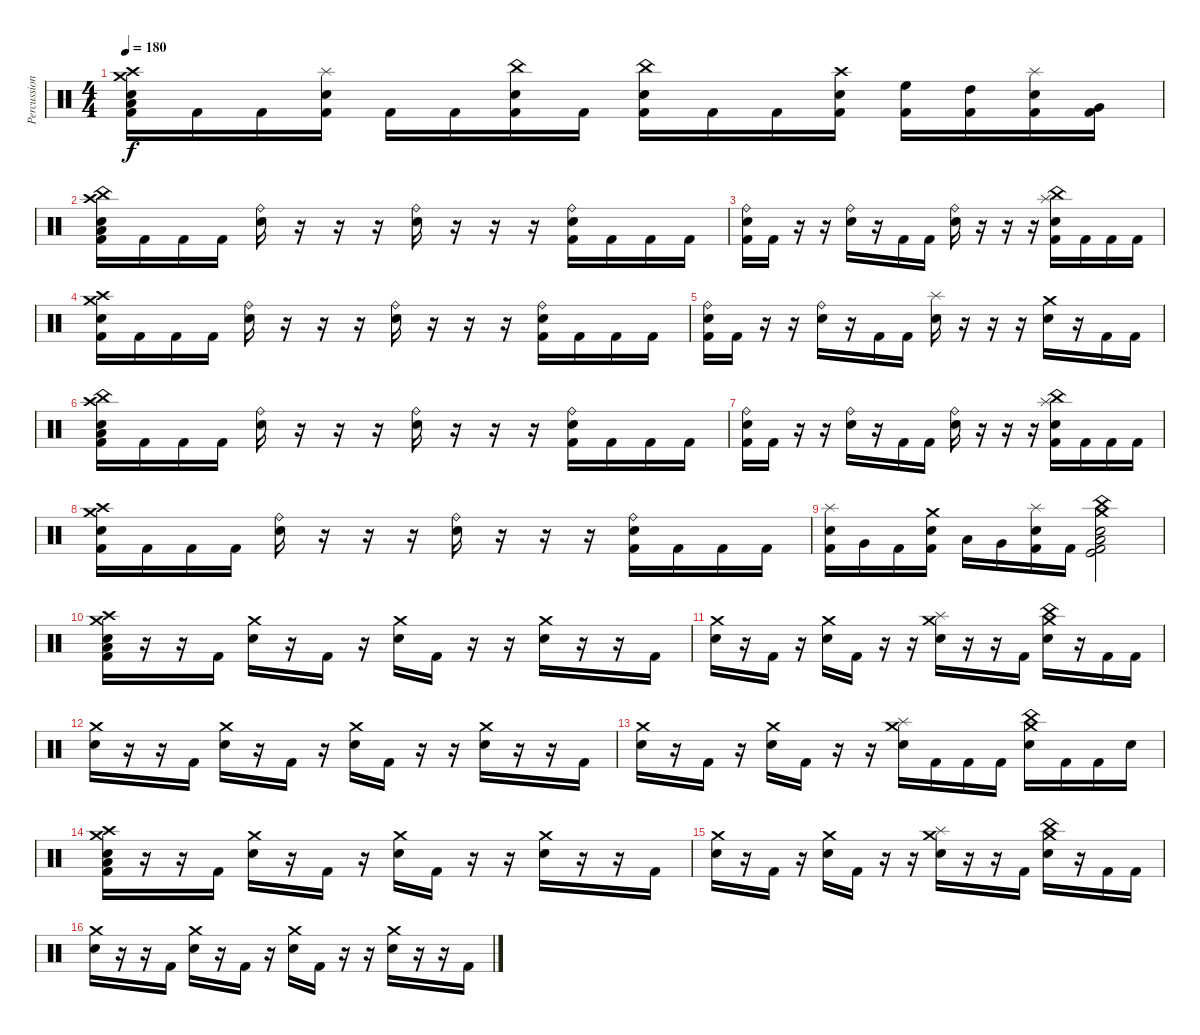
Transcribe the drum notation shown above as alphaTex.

\track ("Percussion" "Percussion") {instrument percussion}
\staff {score}
\articulation defaults
\ts (4 4)
\tempo 180
\clef neutral
\ks c
("Crash medium (hit)" "Crash high (hit)" "Electric Snare (hit)" "Low Floor Tom (hit)" "Kick (hit) 2").16{dy f} "Kick (hit) 2".16 "Kick (hit) 2".16 ("Splash (hit)" "Electric Snare (hit)" "Kick (hit) 2").16 "Kick (hit) 2".16 "Kick (hit) 2".16 ("China (hit)" "Electric Snare (hit)" "Kick (hit) 2").16 "Kick (hit) 2".16 ("China (hit)" "Electric Snare (hit)" "Kick (hit) 2").16 "Kick (hit) 2".16 "Kick (hit) 2".16 ("Crash high (hit)" "Electric Snare (hit)" "Kick (hit) 2").16 ("High Floor Tom (hit)" "Kick (hit) 2").16 ("High Tom (hit)" "Kick (hit) 2").16 ("Splash (hit)" "Electric Snare (hit)" "Kick (hit) 2").16 ("Very Low Tom (hit)" "Kick (hit) 2").16 |
("Crash high (hit)" "China (hit)" "Electric Snare (hit)" "Low Floor Tom (hit)" "Kick (hit) 2").16 "Kick (hit) 2".16 "Kick (hit) 2".16 "Kick (hit) 2".16 ("Ride (bell)" "Electric Snare (hit)").16 r.16 r.16 r.16 ("Ride (bell)" "Electric Snare (hit)").16 r.16 r.16 r.16 ("Ride (bell)" "Electric Snare (hit)" "Kick (hit) 2").16 "Kick (hit) 2".16 "Kick (hit) 2".16 "Kick (hit) 2".16 |
("Ride (bell)" "Electric Snare (hit)" "Kick (hit) 2").16 "Kick (hit) 2".16 r.16 r.16 ("Ride (bell)" "Electric Snare (hit)").16 r.16 "Kick (hit) 2".16 "Kick (hit) 2".16 ("Ride (bell)" "Electric Snare (hit)").16 r.16 r.16 r.16 ("Splash (hit)" "China (hit)" "Electric Snare (hit)" "Kick (hit) 2").16 "Kick (hit) 2".16 "Kick (hit) 2".16 "Kick (hit) 2".16 |
("Crash high (hit)" "Crash medium (hit)" "Electric Snare (hit)" "Kick (hit) 2").16 "Kick (hit) 2".16 "Kick (hit) 2".16 "Kick (hit) 2".16 ("Ride (bell)" "Electric Snare (hit)").16 r.16 r.16 r.16 ("Ride (bell)" "Electric Snare (hit)").16 r.16 r.16 r.16 ("Ride (bell)" "Electric Snare (hit)" "Kick (hit) 2").16 "Kick (hit) 2".16 "Kick (hit) 2".16 "Kick (hit) 2".16 |
("Ride (bell)" "Electric Snare (hit)" "Kick (hit) 2").16 "Kick (hit) 2".16 r.16 r.16 ("Ride (bell)" "Electric Snare (hit)").16 r.16 "Kick (hit) 2".16 "Kick (hit) 2".16 ("Splash (hit)" "Electric Snare (hit)").16 r.16 r.16 r.16 ("Crash medium (hit)" "Electric Snare (hit)").16 r.16 "Kick (hit) 2".16 "Kick (hit) 2".16 |
("Crash high (hit)" "China (hit)" "Electric Snare (hit)" "Low Floor Tom (hit)" "Kick (hit) 2").16 "Kick (hit) 2".16 "Kick (hit) 2".16 "Kick (hit) 2".16 ("Ride (bell)" "Electric Snare (hit)").16 r.16 r.16 r.16 ("Ride (bell)" "Electric Snare (hit)").16 r.16 r.16 r.16 ("Ride (bell)" "Electric Snare (hit)" "Kick (hit) 2").16 "Kick (hit) 2".16 "Kick (hit) 2".16 "Kick (hit) 2".16 |
("Ride (bell)" "Electric Snare (hit)" "Kick (hit) 2").16 "Kick (hit) 2".16 r.16 r.16 ("Ride (bell)" "Electric Snare (hit)").16 r.16 "Kick (hit) 2".16 "Kick (hit) 2".16 ("Ride (bell)" "Electric Snare (hit)").16 r.16 r.16 r.16 ("Splash (hit)" "China (hit)" "Electric Snare (hit)" "Kick (hit) 2").16 "Kick (hit) 2".16 "Kick (hit) 2".16 "Kick (hit) 2".16 |
("Crash high (hit)" "Crash medium (hit)" "Electric Snare (hit)" "Kick (hit) 2").16 "Kick (hit) 2".16 "Kick (hit) 2".16 "Kick (hit) 2".16 ("Ride (bell)" "Electric Snare (hit)").16 r.16 r.16 r.16 ("Ride (bell)" "Electric Snare (hit)").16 r.16 r.16 r.16 ("Ride (bell)" "Electric Snare (hit)" "Kick (hit) 2").16 "Kick (hit) 2".16 "Kick (hit) 2".16 "Kick (hit) 2".16 |
("Splash (hit)" "Electric Snare (hit)" "Kick (hit) 2").16 "Very Low Tom (hit)".16 "Kick (hit) 2".16 ("Crash medium (hit)" "Electric Snare (hit)" "Kick (hit) 2").16 "Low Tom (hit)".16 "Very Low Tom (hit)".16 ("Splash (hit)" "Electric Snare (hit)" "Kick (hit) 2").16 "Kick (hit) 2".16 ("Crash medium (hit)" "China (hit)" "Electric Snare (hit)" "Low Floor Tom (hit)" "Kick (hit)" "Kick (hit) 2").2 |
("Crash medium (hit)" "Crash high (hit)" "Electric Snare (hit)" "Low Floor Tom (hit)" "Kick (hit) 2").16 r.16 r.16 "Kick (hit) 2".16 ("Crash medium (hit)" "Electric Snare (hit)").16 r.16 "Kick (hit) 2".16 r.16 ("Crash medium (hit)" "Electric Snare (hit)").16 "Kick (hit) 2".16 r.16 r.16 ("Crash medium (hit)" "Electric Snare (hit)").16 r.16 r.16 "Kick (hit) 2".16 |
("Crash medium (hit)" "Electric Snare (hit)").16 r.16 "Kick (hit) 2".16 r.16 ("Crash medium (hit)" "Electric Snare (hit)").16 "Kick (hit) 2".16 r.16 r.16 ("Crash medium (hit)" "Splash (hit)" "Electric Snare (hit)").16 r.16 r.16 "Kick (hit) 2".16 ("Crash medium (hit)" "China (hit)" "Electric Snare (hit)").16 r.16 "Kick (hit) 2".16 "Kick (hit) 2".16 |
("Crash medium (hit)" "Electric Snare (hit)").16 r.16 r.16 "Kick (hit) 2".16 ("Crash medium (hit)" "Electric Snare (hit)").16 r.16 "Kick (hit) 2".16 r.16 ("Crash medium (hit)" "Electric Snare (hit)").16 "Kick (hit) 2".16 r.16 r.16 ("Crash medium (hit)" "Electric Snare (hit)").16 r.16 r.16 "Kick (hit) 2".16 |
("Crash medium (hit)" "Electric Snare (hit)").16 r.16 "Kick (hit) 2".16 r.16 ("Crash medium (hit)" "Electric Snare (hit)").16 "Kick (hit) 2".16 r.16 r.16 ("Crash medium (hit)" "Splash (hit)" "Electric Snare (hit)").16 "Kick (hit) 2".16 "Kick (hit) 2".16 "Kick (hit) 2".16 ("Crash medium (hit)" "China (hit)" "Electric Snare (hit)").16 "Kick (hit) 2".16 "Kick (hit) 2".16 "Electric Snare (hit)".16 |
("Crash medium (hit)" "Crash high (hit)" "Electric Snare (hit)" "Low Floor Tom (hit)" "Kick (hit) 2").16 r.16 r.16 "Kick (hit) 2".16 ("Crash medium (hit)" "Electric Snare (hit)").16 r.16 "Kick (hit) 2".16 r.16 ("Crash medium (hit)" "Electric Snare (hit)").16 "Kick (hit) 2".16 r.16 r.16 ("Crash medium (hit)" "Electric Snare (hit)").16 r.16 r.16 "Kick (hit) 2".16 |
("Crash medium (hit)" "Electric Snare (hit)").16 r.16 "Kick (hit) 2".16 r.16 ("Crash medium (hit)" "Electric Snare (hit)").16 "Kick (hit) 2".16 r.16 r.16 ("Crash medium (hit)" "Splash (hit)" "Electric Snare (hit)").16 r.16 r.16 "Kick (hit) 2".16 ("Crash medium (hit)" "China (hit)" "Electric Snare (hit)").16 r.16 "Kick (hit) 2".16 "Kick (hit) 2".16 |
("Crash medium (hit)" "Electric Snare (hit)").16 r.16 r.16 "Kick (hit) 2".16 ("Crash medium (hit)" "Electric Snare (hit)").16 r.16 "Kick (hit) 2".16 r.16 ("Crash medium (hit)" "Electric Snare (hit)").16 "Kick (hit) 2".16 r.16 r.16 ("Crash medium (hit)" "Electric Snare (hit)").16 r.16 r.16 "Kick (hit) 2".16
